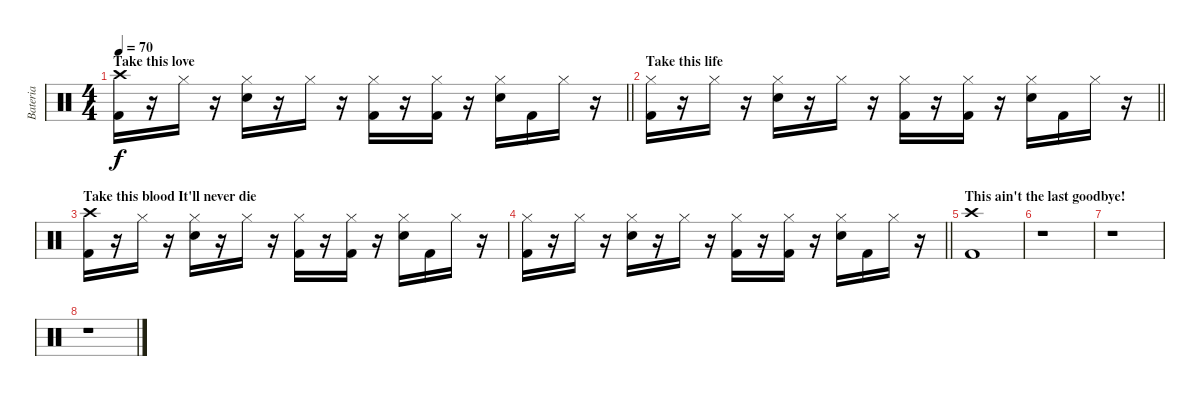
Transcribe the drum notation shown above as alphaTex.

\track ("Bateria" "Bateria") {instrument percussion}
\staff {score}
\articulation defaults
\ts (4 4)
\section ("" "Take this love")
\tempo 70
\clef neutral
\barLineRight lightlight
\ks c
("Crash high (hit)" "Kick (hit) 2").16{dy f} r.16 "Hi-Hat (closed)".16 r.16 ("Hi-Hat (closed)" "Electric Snare (hit)").16 r.16 "Hi-Hat (closed)".16 r.16 ("Hi-Hat (closed)" "Kick (hit) 2").16 r.16 ("Hi-Hat (closed)" "Kick (hit) 2").16 r.16 ("Hi-Hat (closed)" "Electric Snare (hit)").16 "Kick (hit) 2".16 "Hi-Hat (closed)".16 r.16 |
\section ("" "Take this life")
\barLineRight lightlight
("Hi-Hat (closed)" "Kick (hit) 2").16 r.16 "Hi-Hat (closed)".16 r.16 ("Hi-Hat (closed)" "Electric Snare (hit)").16 r.16 "Hi-Hat (closed)".16 r.16 ("Hi-Hat (closed)" "Kick (hit) 2").16 r.16 ("Hi-Hat (closed)" "Kick (hit) 2").16 r.16 ("Hi-Hat (closed)" "Electric Snare (hit)").16 "Kick (hit) 2".16 "Hi-Hat (closed)".16 r.16 |
\section ("" "Take this blood It'll never die")
("Crash high (hit)" "Kick (hit) 2").16 r.16 "Hi-Hat (closed)".16 r.16 ("Hi-Hat (closed)" "Electric Snare (hit)").16 r.16 "Hi-Hat (closed)".16 r.16 ("Hi-Hat (closed)" "Kick (hit) 2").16 r.16 ("Hi-Hat (closed)" "Kick (hit) 2").16 r.16 ("Hi-Hat (closed)" "Electric Snare (hit)").16 "Kick (hit) 2".16 "Hi-Hat (closed)".16 r.16 |
\barLineRight lightlight
("Hi-Hat (closed)" "Kick (hit) 2").16 r.16 "Hi-Hat (closed)".16 r.16 ("Hi-Hat (closed)" "Electric Snare (hit)").16 r.16 "Hi-Hat (closed)".16 r.16 ("Hi-Hat (closed)" "Kick (hit) 2").16 r.16 ("Hi-Hat (closed)" "Kick (hit) 2").16 r.16 ("Hi-Hat (closed)" "Electric Snare (hit)").16 "Kick (hit) 2".16 "Hi-Hat (closed)".16 r.16 |
\section ("" "This ain't the last goodbye!")
("Crash high (hit)" "Kick (hit) 2").1 |
r.1 |
r.1 |
r.1
